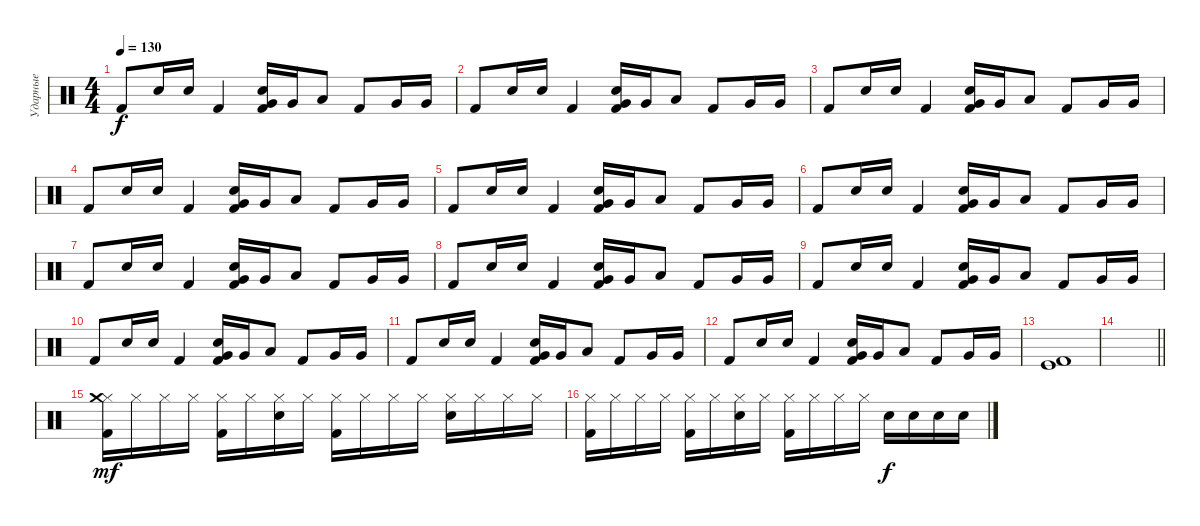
\track ("Ударные" "Ударные") {instrument percussion}
\staff {score}
\articulation defaults
\ts (4 4)
\tempo 130
\clef neutral
\ks c "Kick (hit) 2".8{dy f} "Electric Snare (hit)".16 "Electric Snare (hit)".16 "Kick (hit) 2".4
("Electric Snare (hit)" "Kick (hit) 2" "Very Low Tom (hit)").16 "Very Low Tom (hit)".16 "Low Floor Tom (hit)".8 "Kick (hit) 2".8 "Very Low Tom (hit)".16 "Very Low Tom (hit)".16 |
"Kick (hit) 2".8 "Electric Snare (hit)".16 "Electric Snare (hit)".16 "Kick (hit) 2".4 ("Electric Snare (hit)" "Kick (hit) 2" "Very Low Tom (hit)").16 "Very Low Tom (hit)".16 "Low Floor Tom (hit)".8 "Kick (hit) 2".8 "Very Low Tom (hit)".16 "Very Low Tom (hit)".16 |
"Kick (hit) 2".8 "Electric Snare (hit)".16 "Electric Snare (hit)".16 "Kick (hit) 2".4 ("Electric Snare (hit)" "Kick (hit) 2" "Very Low Tom (hit)").16 "Very Low Tom (hit)".16 "Low Floor Tom (hit)".8 "Kick (hit) 2".8 "Very Low Tom (hit)".16 "Very Low Tom (hit)".16 |
"Kick (hit) 2".8 "Electric Snare (hit)".16 "Electric Snare (hit)".16 "Kick (hit) 2".4 ("Electric Snare (hit)" "Kick (hit) 2" "Very Low Tom (hit)").16 "Very Low Tom (hit)".16 "Low Floor Tom (hit)".8 "Kick (hit) 2".8 "Very Low Tom (hit)".16 "Very Low Tom (hit)".16 |
"Kick (hit) 2".8 "Electric Snare (hit)".16 "Electric Snare (hit)".16 "Kick (hit) 2".4 ("Electric Snare (hit)" "Kick (hit) 2" "Very Low Tom (hit)").16 "Very Low Tom (hit)".16 "Low Floor Tom (hit)".8 "Kick (hit) 2".8 "Very Low Tom (hit)".16 "Very Low Tom (hit)".16 |
"Kick (hit) 2".8 "Electric Snare (hit)".16 "Electric Snare (hit)".16 "Kick (hit) 2".4 ("Electric Snare (hit)" "Kick (hit) 2" "Very Low Tom (hit)").16 "Very Low Tom (hit)".16 "Low Floor Tom (hit)".8 "Kick (hit) 2".8 "Very Low Tom (hit)".16 "Very Low Tom (hit)".16 |
"Kick (hit) 2".8 "Electric Snare (hit)".16 "Electric Snare (hit)".16 "Kick (hit) 2".4 ("Electric Snare (hit)" "Kick (hit) 2" "Very Low Tom (hit)").16 "Very Low Tom (hit)".16 "Low Floor Tom (hit)".8 "Kick (hit) 2".8 "Very Low Tom (hit)".16 "Very Low Tom (hit)".16 |
"Kick (hit) 2".8 "Electric Snare (hit)".16 "Electric Snare (hit)".16 "Kick (hit) 2".4 ("Electric Snare (hit)" "Kick (hit) 2" "Very Low Tom (hit)").16 "Very Low Tom (hit)".16 "Low Floor Tom (hit)".8 "Kick (hit) 2".8 "Very Low Tom (hit)".16 "Very Low Tom (hit)".16 |
"Kick (hit) 2".8 "Electric Snare (hit)".16 "Electric Snare (hit)".16 "Kick (hit) 2".4 ("Electric Snare (hit)" "Kick (hit) 2" "Very Low Tom (hit)").16 "Very Low Tom (hit)".16 "Low Floor Tom (hit)".8 "Kick (hit) 2".8 "Very Low Tom (hit)".16 "Very Low Tom (hit)".16 |
"Kick (hit) 2".8 "Electric Snare (hit)".16 "Electric Snare (hit)".16 "Kick (hit) 2".4 ("Electric Snare (hit)" "Kick (hit) 2" "Very Low Tom (hit)").16 "Very Low Tom (hit)".16 "Low Floor Tom (hit)".8 "Kick (hit) 2".8 "Very Low Tom (hit)".16 "Very Low Tom (hit)".16 |
"Kick (hit) 2".8 "Electric Snare (hit)".16 "Electric Snare (hit)".16 "Kick (hit) 2".4 ("Electric Snare (hit)" "Kick (hit) 2" "Very Low Tom (hit)").16 "Very Low Tom (hit)".16 "Low Floor Tom (hit)".8 "Kick (hit) 2".8 "Very Low Tom (hit)".16 "Very Low Tom (hit)".16 |
"Kick (hit) 2".8 "Electric Snare (hit)".16 "Electric Snare (hit)".16 "Kick (hit) 2".4 ("Electric Snare (hit)" "Kick (hit) 2" "Very Low Tom (hit)").16 "Very Low Tom (hit)".16 "Low Floor Tom (hit)".8 "Kick (hit) 2".8 "Very Low Tom (hit)".16 "Very Low Tom (hit)".16 |
("Kick (hit) 2" "Kick (hit)").1 |
\barLineRight lightlight
|
("Hi-Hat (closed)" "Crash medium (hit)" "Kick (hit) 2").16{dy mf} "Hi-Hat (closed)".16 "Hi-Hat (closed)".16 "Hi-Hat (closed)".16 ("Hi-Hat (closed)" "Kick (hit) 2").16 "Hi-Hat (closed)".16 ("Hi-Hat (closed)" "Electric Snare (hit)").16 "Hi-Hat (closed)".16 ("Hi-Hat (closed)" "Kick (hit) 2").16 "Hi-Hat (closed)".16 "Hi-Hat (closed)".16 "Hi-Hat (closed)".16 ("Hi-Hat (closed)" "Electric Snare (hit)").16 "Hi-Hat (closed)".16 "Hi-Hat (closed)".16 "Hi-Hat (closed)".16 |
("Hi-Hat (closed)" "Kick (hit) 2").16 "Hi-Hat (closed)".16 "Hi-Hat (closed)".16 "Hi-Hat (closed)".16 ("Hi-Hat (closed)" "Kick (hit) 2").16 "Hi-Hat (closed)".16 ("Hi-Hat (closed)" "Electric Snare (hit)").16 "Hi-Hat (closed)".16 ("Hi-Hat (closed)" "Kick (hit) 2").16 "Hi-Hat (closed)".16 "Hi-Hat (closed)".16 "Hi-Hat (closed)".16 "Electric Snare (hit)".16{dy f} "Electric Snare (hit)".16 "Electric Snare (hit)".16 "Electric Snare (hit)".16
